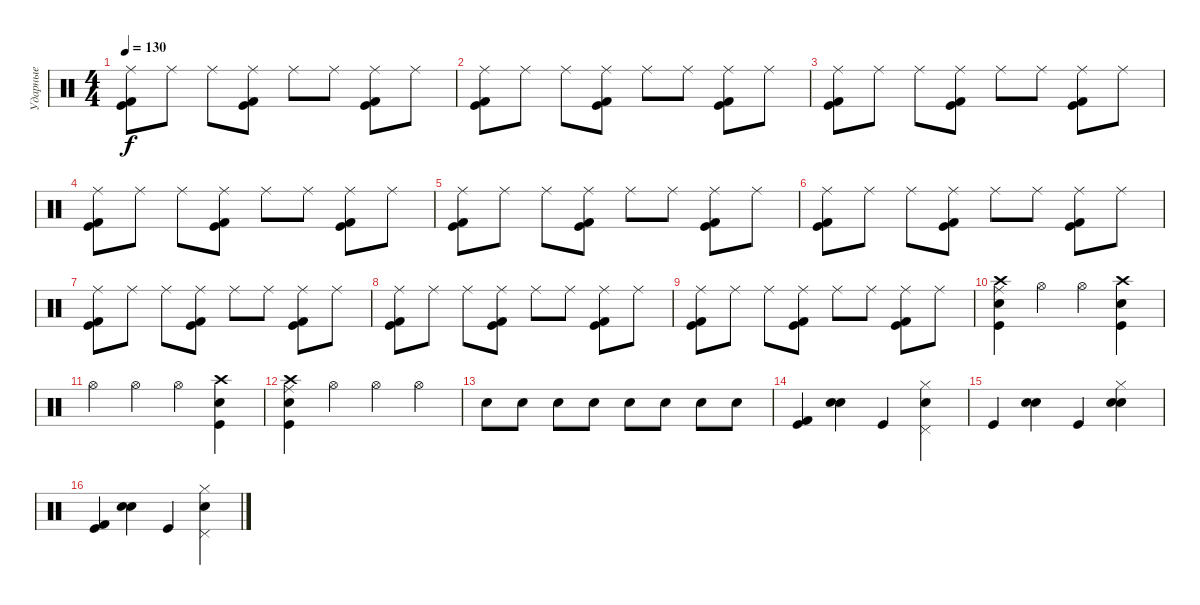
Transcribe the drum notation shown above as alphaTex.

\track ("Ударные" "Ударные") {instrument percussion}
\staff {score}
\articulation defaults
\ts (4 4)
\tempo 130
\clef neutral
\ks c
("Ride (middle)" "Kick (hit)" "Kick (hit) 2").8{dy f} "Ride (middle)".8 "Ride (middle)".8 ("Ride (middle)" "Kick (hit)" "Kick (hit) 2").8 "Ride (middle)".8 "Ride (middle)".8 ("Ride (middle)" "Kick (hit)" "Kick (hit) 2").8 "Ride (middle)".8 |
("Ride (middle)" "Kick (hit)" "Kick (hit) 2").8 "Ride (middle)".8 "Ride (middle)".8 ("Ride (middle)" "Kick (hit)" "Kick (hit) 2").8 "Ride (middle)".8 "Ride (middle)".8 ("Ride (middle)" "Kick (hit)" "Kick (hit) 2").8 "Ride (middle)".8 |
("Ride (middle)" "Kick (hit)" "Kick (hit) 2").8 "Ride (middle)".8 "Ride (middle)".8 ("Ride (middle)" "Kick (hit)" "Kick (hit) 2").8 "Ride (middle)".8 "Ride (middle)".8 ("Ride (middle)" "Kick (hit)" "Kick (hit) 2").8 "Ride (middle)".8 |
("Ride (middle)" "Kick (hit)" "Kick (hit) 2").8 "Ride (middle)".8 "Ride (middle)".8 ("Ride (middle)" "Kick (hit)" "Kick (hit) 2").8 "Ride (middle)".8 "Ride (middle)".8 ("Ride (middle)" "Kick (hit)" "Kick (hit) 2").8 "Ride (middle)".8 |
("Ride (middle)" "Kick (hit)" "Kick (hit) 2").8 "Ride (middle)".8 "Ride (middle)".8 ("Ride (middle)" "Kick (hit)" "Kick (hit) 2").8 "Ride (middle)".8 "Ride (middle)".8 ("Ride (middle)" "Kick (hit)" "Kick (hit) 2").8 "Ride (middle)".8 |
("Ride (middle)" "Kick (hit)" "Kick (hit) 2").8 "Ride (middle)".8 "Ride (middle)".8 ("Ride (middle)" "Kick (hit)" "Kick (hit) 2").8 "Ride (middle)".8 "Ride (middle)".8 ("Ride (middle)" "Kick (hit)" "Kick (hit) 2").8 "Ride (middle)".8 |
("Ride (middle)" "Kick (hit)" "Kick (hit) 2").8 "Ride (middle)".8 "Ride (middle)".8 ("Ride (middle)" "Kick (hit)" "Kick (hit) 2").8 "Ride (middle)".8 "Ride (middle)".8 ("Ride (middle)" "Kick (hit)" "Kick (hit) 2").8 "Ride (middle)".8 |
("Ride (middle)" "Kick (hit)" "Kick (hit) 2").8 "Ride (middle)".8 "Ride (middle)".8 ("Ride (middle)" "Kick (hit)" "Kick (hit) 2").8 "Ride (middle)".8 "Ride (middle)".8 ("Ride (middle)" "Kick (hit)" "Kick (hit) 2").8 "Ride (middle)".8 |
("Ride (middle)" "Kick (hit)" "Kick (hit) 2").8 "Ride (middle)".8 "Ride (middle)".8 ("Ride (middle)" "Kick (hit)" "Kick (hit) 2").8 "Ride (middle)".8 "Ride (middle)".8 ("Ride (middle)" "Kick (hit)" "Kick (hit) 2").8 "Ride (middle)".8 |
("Ride (middle)" "Kick (hit)" "Snare (hit) 2" "Crash high (hit)").4 "Hi-Hat (open)".4 "Hi-Hat (open)".4 ("Kick (hit)" "Snare (hit) 2" "Crash high (hit)").4 |
"Hi-Hat (open)".4 "Hi-Hat (open)".4 "Hi-Hat (open)".4 ("Kick (hit)" "Snare (hit) 2" "Crash high (hit)").4 |
("Ride (middle)" "Kick (hit)" "Snare (hit) 2" "Crash high (hit)").4 "Hi-Hat (open)".4 "Hi-Hat (open)".4 "Hi-Hat (open)".4 |
"Snare (hit) 2".8 "Snare (hit) 2".8 "Snare (hit) 2".8 "Snare (hit) 2".8 "Snare (hit) 2".8 "Snare (hit) 2".8 "Snare (hit) 2".8 "Snare (hit) 2".8 |
("Kick (hit)" "Kick (hit) 2").4 ("Electric Snare (hit)" "Electric Snare (hit)").4 "Kick (hit)".4 ("Electric Snare (hit)" "Pedal Hi-Hat (hit)" "Hi-Hat (closed)").4 |
"Kick (hit)".4 ("Electric Snare (hit)" "Electric Snare (hit)").4 "Kick (hit)".4 ("Electric Snare (hit)" "Electric Snare (hit)" "Hi-Hat (closed)").4 |
("Kick (hit)" "Kick (hit) 2").4 ("Electric Snare (hit)" "Electric Snare (hit)").4 "Kick (hit)".4 ("Electric Snare (hit)" "Pedal Hi-Hat (hit)" "Hi-Hat (closed)").4
